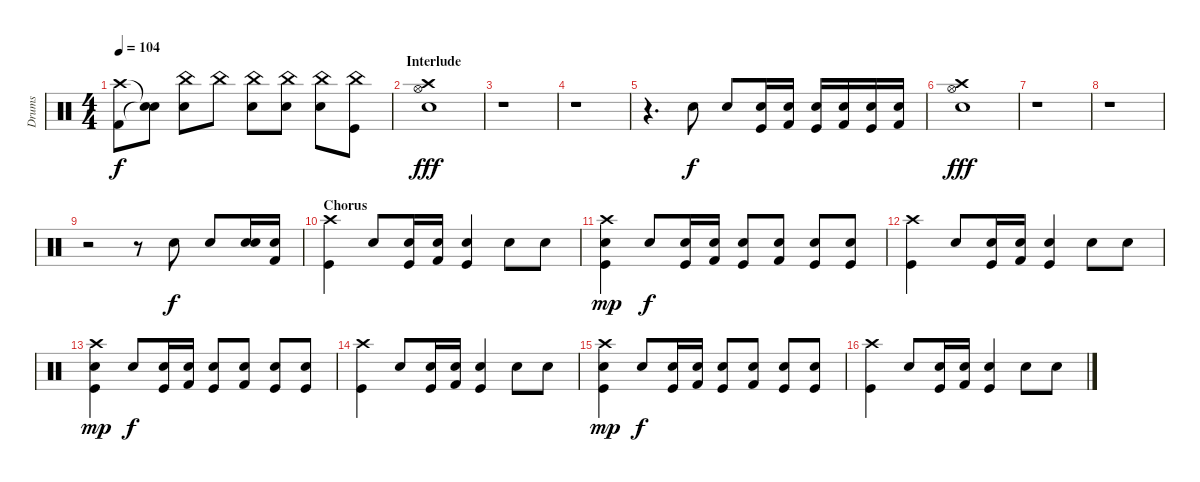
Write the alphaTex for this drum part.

\track ("Drums" "Drums") {instrument percussion}
\staff {score}
\articulation defaults
\ts (4 4)
\tempo 104
\clef neutral
\ks c
("Crash high (hit)" "Kick (hit) 2").8{dy f} ("Snare (hit)"{t} "Snare (hit)"{t}).8 ("China (hit)" "Snare (hit) 2").8 "China (hit)".8 ("China (hit)" "Snare (hit) 2").8 ("China (hit)" "Snare (hit) 2").8 ("China (hit)" "Electric Snare (hit)").8 ("China (hit)" "Kick (hit)").8 |
\section ("" "Interlude")
("Crash high (hit)" "Hi-Hat (open)" "Snare (hit) 2").1{dy fff} |
r.1 |
r.1 |
r.4{d} "Snare (hit) 2".8{dy f} "Electric Snare (hit)".8 ("Snare (hit) 2" "Kick (hit)").16 ("Electric Snare (hit)" "Kick (hit) 2").16 ("Snare (hit) 2" "Kick (hit)").16 ("Electric Snare (hit)" "Kick (hit) 2").16 ("Snare (hit) 2" "Kick (hit)").16 ("Electric Snare (hit)" "Kick (hit) 2").16 |
("Crash high (hit)" "Hi-Hat (open)" "Snare (hit) 2").1{dy fff} |
r.1 |
r.1 |
r.2 r.8 "Electric Snare (hit)".8{dy f} "Electric Snare (hit)".8 ("Snare (hit) 2" "Snare (hit) 2").16 ("Electric Snare (hit)" "Kick (hit) 2").16 |
\section ("" "Chorus")
("Crash high (hit)" "Kick (hit)").4{volume 12} "Snare (hit) 2".8 ("Snare (hit) 2" "Kick (hit)").16 ("Electric Snare (hit)" "Kick (hit) 2").16 ("Snare (hit) 2" "Kick (hit)").4 "Snare (hit) 2".8 "Snare (hit) 2".8 |
("Crash high (hit)" "Snare (hit) 2" "Kick (hit)").4{dy mp} "Snare (hit) 2".8{dy f} ("Snare (hit) 2" "Kick (hit)").16 ("Electric Snare (hit)" "Kick (hit) 2").16 ("Snare (hit) 2" "Kick (hit)").8 ("Electric Snare (hit)" "Kick (hit) 2").8 ("Snare (hit) 2" "Kick (hit)").8 ("Snare (hit) 2" "Kick (hit)").8 |
("Crash high (hit)" "Kick (hit)").4{volume 12} "Snare (hit) 2".8 ("Snare (hit) 2" "Kick (hit)").16 ("Electric Snare (hit)" "Kick (hit) 2").16 ("Snare (hit) 2" "Kick (hit)").4 "Snare (hit) 2".8 "Snare (hit) 2".8 |
("Crash high (hit)" "Snare (hit) 2" "Kick (hit)").4{dy mp} "Snare (hit) 2".8{dy f} ("Snare (hit) 2" "Kick (hit)").16 ("Electric Snare (hit)" "Kick (hit) 2").16 ("Snare (hit) 2" "Kick (hit)").8 ("Electric Snare (hit)" "Kick (hit) 2").8 ("Snare (hit) 2" "Kick (hit)").8 ("Snare (hit) 2" "Kick (hit)").8 |
("Crash high (hit)" "Kick (hit)").4{volume 12} "Snare (hit) 2".8 ("Snare (hit) 2" "Kick (hit)").16 ("Electric Snare (hit)" "Kick (hit) 2").16 ("Snare (hit) 2" "Kick (hit)").4 "Snare (hit) 2".8 "Snare (hit) 2".8 |
("Crash high (hit)" "Snare (hit) 2" "Kick (hit)").4{dy mp} "Snare (hit) 2".8{dy f} ("Snare (hit) 2" "Kick (hit)").16 ("Electric Snare (hit)" "Kick (hit) 2").16 ("Snare (hit) 2" "Kick (hit)").8 ("Electric Snare (hit)" "Kick (hit) 2").8 ("Snare (hit) 2" "Kick (hit)").8 ("Snare (hit) 2" "Kick (hit)").8 |
("Crash high (hit)" "Kick (hit)").4{volume 12} "Snare (hit) 2".8 ("Snare (hit) 2" "Kick (hit)").16 ("Electric Snare (hit)" "Kick (hit) 2").16 ("Snare (hit) 2" "Kick (hit)").4 "Snare (hit) 2".8 "Snare (hit) 2".8
